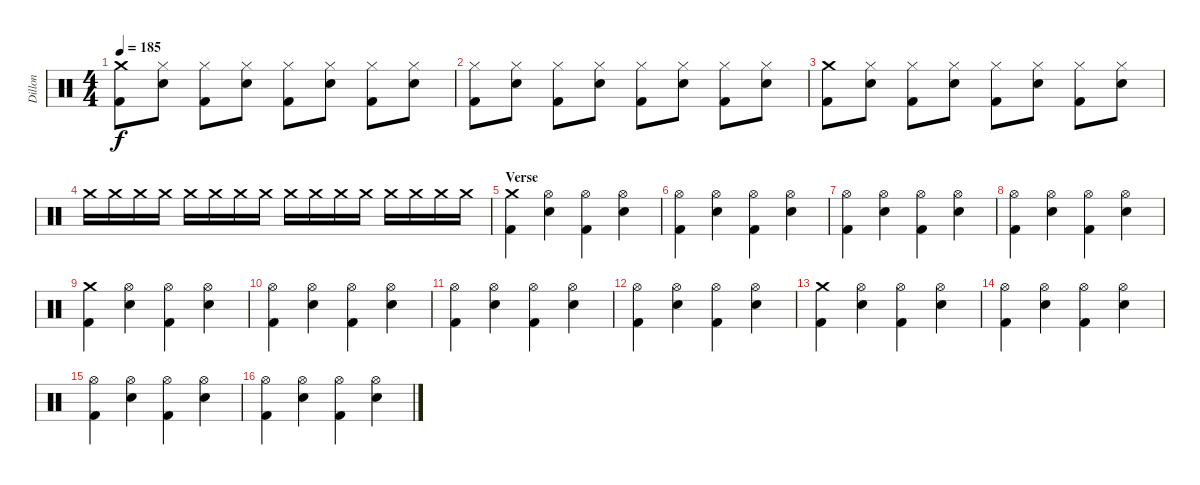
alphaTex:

\track ("Dillon" "Dillon") {instrument percussion}
\staff {score}
\articulation defaults
\ts (4 4)
\tempo 185
\clef neutral
\ks c
("Crash medium (hit)" "Kick (hit) 2").8{dy f} ("Hi-Hat (closed)" "Electric Snare (hit)").8 ("Hi-Hat (closed)" "Kick (hit) 2").8 ("Hi-Hat (closed)" "Electric Snare (hit)").8 ("Hi-Hat (closed)" "Kick (hit) 2").8 ("Hi-Hat (closed)" "Electric Snare (hit)").8 ("Hi-Hat (closed)" "Kick (hit) 2").8 ("Hi-Hat (closed)" "Electric Snare (hit)").8 |
("Hi-Hat (closed)" "Kick (hit) 2").8 ("Hi-Hat (closed)" "Electric Snare (hit)").8 ("Hi-Hat (closed)" "Kick (hit) 2").8 ("Hi-Hat (closed)" "Electric Snare (hit)").8 ("Hi-Hat (closed)" "Kick (hit) 2").8 ("Hi-Hat (closed)" "Electric Snare (hit)").8 ("Hi-Hat (closed)" "Kick (hit) 2").8 ("Hi-Hat (closed)" "Electric Snare (hit)").8 |
("Crash medium (hit)" "Kick (hit) 2").8 ("Hi-Hat (closed)" "Electric Snare (hit)").8 ("Hi-Hat (closed)" "Kick (hit) 2").8 ("Hi-Hat (closed)" "Electric Snare (hit)").8 ("Hi-Hat (closed)" "Kick (hit) 2").8 ("Hi-Hat (closed)" "Electric Snare (hit)").8 ("Hi-Hat (closed)" "Kick (hit) 2").8 ("Hi-Hat (closed)" "Electric Snare (hit)").8 |
"Crash medium (hit)".16{volume 0} "Crash medium (hit)".16{volume 13} "Crash medium (hit)".16 "Crash medium (hit)".16 "Crash medium (hit)".16 "Crash medium (hit)".16 "Crash medium (hit)".16 "Crash medium (hit)".16 "Crash medium (hit)".16 "Crash medium (hit)".16 "Crash medium (hit)".16 "Crash medium (hit)".16 "Crash medium (hit)".16 "Crash medium (hit)".16 "Crash medium (hit)".16 "Crash medium (hit)".16 |
\section ("" "Verse")
("Crash medium (hit)" "Kick (hit) 2").4 ("Hi-Hat (open)" "Electric Snare (hit)").4 ("Hi-Hat (open)" "Kick (hit) 2").4 ("Hi-Hat (open)" "Electric Snare (hit)").4 |
("Hi-Hat (open)" "Kick (hit) 2").4 ("Hi-Hat (open)" "Electric Snare (hit)").4 ("Hi-Hat (open)" "Kick (hit) 2").4 ("Hi-Hat (open)" "Electric Snare (hit)").4 |
("Hi-Hat (open)" "Kick (hit) 2").4 ("Hi-Hat (open)" "Electric Snare (hit)").4 ("Hi-Hat (open)" "Kick (hit) 2").4 ("Hi-Hat (open)" "Electric Snare (hit)").4 |
("Hi-Hat (open)" "Kick (hit) 2").4 ("Hi-Hat (open)" "Electric Snare (hit)").4 ("Hi-Hat (open)" "Kick (hit) 2").4 ("Hi-Hat (open)" "Electric Snare (hit)").4 |
("Crash medium (hit)" "Kick (hit) 2").4 ("Hi-Hat (open)" "Electric Snare (hit)").4 ("Hi-Hat (open)" "Kick (hit) 2").4 ("Hi-Hat (open)" "Electric Snare (hit)").4 |
("Hi-Hat (open)" "Kick (hit) 2").4 ("Hi-Hat (open)" "Electric Snare (hit)").4 ("Hi-Hat (open)" "Kick (hit) 2").4 ("Hi-Hat (open)" "Electric Snare (hit)").4 |
("Hi-Hat (open)" "Kick (hit) 2").4 ("Hi-Hat (open)" "Electric Snare (hit)").4 ("Hi-Hat (open)" "Kick (hit) 2").4 ("Hi-Hat (open)" "Electric Snare (hit)").4 |
("Hi-Hat (open)" "Kick (hit) 2").4 ("Hi-Hat (open)" "Electric Snare (hit)").4 ("Hi-Hat (open)" "Kick (hit) 2").4 ("Hi-Hat (open)" "Electric Snare (hit)").4 |
("Crash medium (hit)" "Kick (hit) 2").4 ("Hi-Hat (open)" "Electric Snare (hit)").4 ("Hi-Hat (open)" "Kick (hit) 2").4 ("Hi-Hat (open)" "Electric Snare (hit)").4 |
("Hi-Hat (open)" "Kick (hit) 2").4 ("Hi-Hat (open)" "Electric Snare (hit)").4 ("Hi-Hat (open)" "Kick (hit) 2").4 ("Hi-Hat (open)" "Electric Snare (hit)").4 |
("Hi-Hat (open)" "Kick (hit) 2").4 ("Hi-Hat (open)" "Electric Snare (hit)").4 ("Hi-Hat (open)" "Kick (hit) 2").4 ("Hi-Hat (open)" "Electric Snare (hit)").4 |
("Hi-Hat (open)" "Kick (hit) 2").4 ("Hi-Hat (open)" "Electric Snare (hit)").4 ("Hi-Hat (open)" "Kick (hit) 2").4 ("Hi-Hat (open)" "Electric Snare (hit)").4
